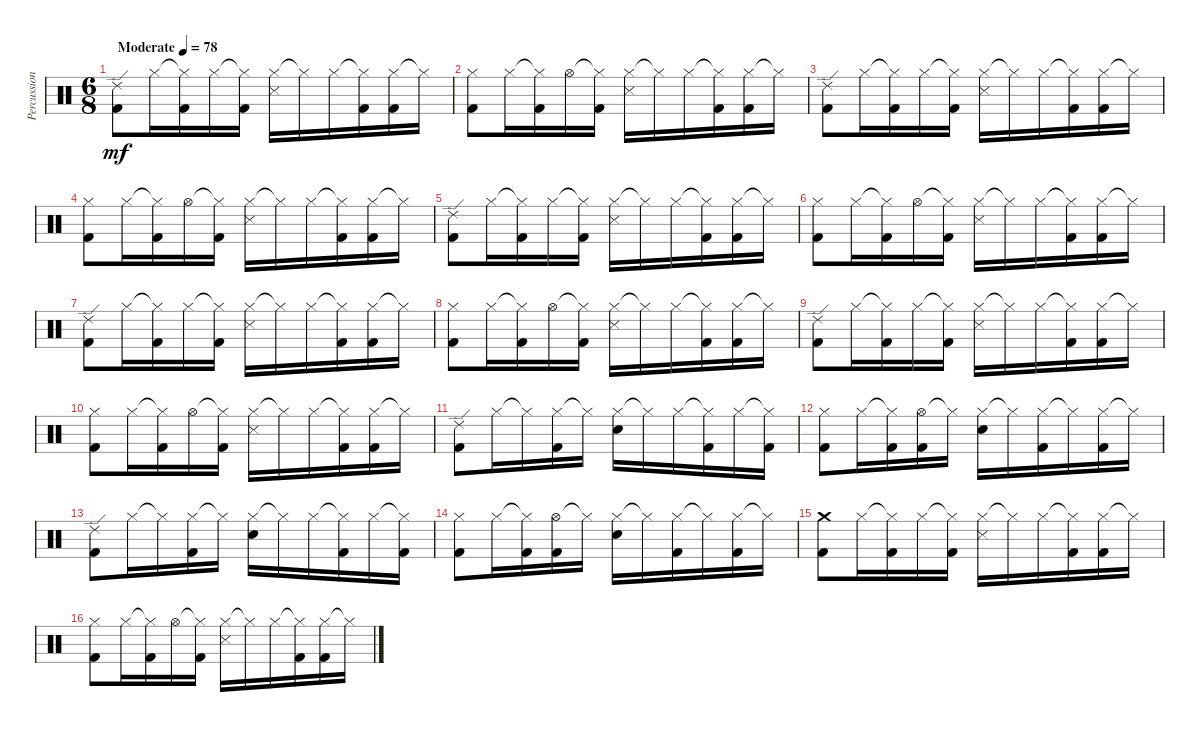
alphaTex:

\track ("Percussion" "Percussion") {instrument percussion}
\staff {score}
\articulation defaults
\ts (6 8)
\tempo (78 "Moderate")
\clef neutral
\ks c
("Ride (edge) 2" "Kick (hit) 2").8{dy mf} "Hi-Hat (closed)".16 ("Hi-Hat (closed)"{t} "Kick (hit) 2").16 "Hi-Hat (closed)".16 ("Hi-Hat (closed)"{t} "Kick (hit) 2").16 ("Hi-Hat (closed)" "Snare (side stick) 3").16 "Hi-Hat (closed)"{t}.16 "Hi-Hat (closed)".16 ("Hi-Hat (closed)"{t} "Kick (hit) 2").16 ("Hi-Hat (closed)" "Kick (hit) 2").16 "Hi-Hat (closed)"{t}.16 |
("Hi-Hat (closed)" "Kick (hit) 2").8 "Hi-Hat (closed)".16 ("Hi-Hat (closed)"{t} "Kick (hit) 2").16 "Hi-Hat (open)".16 ("Hi-Hat (closed)"{t} "Kick (hit) 2").16 ("Hi-Hat (closed)" "Snare (side stick) 3").16 "Hi-Hat (closed)"{t}.16 "Hi-Hat (closed)".16 ("Hi-Hat (closed)"{t} "Kick (hit) 2").16 ("Hi-Hat (closed)" "Kick (hit) 2").16 "Hi-Hat (closed)"{t}.16 |
("Ride (edge) 2" "Kick (hit) 2").8 "Hi-Hat (closed)".16 ("Hi-Hat (closed)"{t} "Kick (hit) 2").16 "Hi-Hat (closed)".16 ("Hi-Hat (closed)"{t} "Kick (hit) 2").16 ("Hi-Hat (closed)" "Snare (side stick) 3").16 "Hi-Hat (closed)"{t}.16 "Hi-Hat (closed)".16 ("Hi-Hat (closed)"{t} "Kick (hit) 2").16 ("Hi-Hat (closed)" "Kick (hit) 2").16 "Hi-Hat (closed)"{t}.16 |
("Hi-Hat (closed)" "Kick (hit) 2").8 "Hi-Hat (closed)".16 ("Hi-Hat (closed)"{t} "Kick (hit) 2").16 "Hi-Hat (open)".16 ("Hi-Hat (closed)"{t} "Kick (hit) 2").16 ("Hi-Hat (closed)" "Snare (side stick) 3").16 "Hi-Hat (closed)"{t}.16 "Hi-Hat (closed)".16 ("Hi-Hat (closed)"{t} "Kick (hit) 2").16 ("Hi-Hat (closed)" "Kick (hit) 2").16 "Hi-Hat (closed)"{t}.16 |
("Ride (edge) 2" "Kick (hit) 2").8 "Hi-Hat (closed)".16 ("Hi-Hat (closed)"{t} "Kick (hit) 2").16 "Hi-Hat (closed)".16 ("Hi-Hat (closed)"{t} "Kick (hit) 2").16 ("Hi-Hat (closed)" "Snare (side stick) 3").16 "Hi-Hat (closed)"{t}.16 "Hi-Hat (closed)".16 ("Hi-Hat (closed)"{t} "Kick (hit) 2").16 ("Hi-Hat (closed)" "Kick (hit) 2").16 "Hi-Hat (closed)"{t}.16 |
("Hi-Hat (closed)" "Kick (hit) 2").8 "Hi-Hat (closed)".16 ("Hi-Hat (closed)"{t} "Kick (hit) 2").16 "Hi-Hat (open)".16 ("Hi-Hat (closed)"{t} "Kick (hit) 2").16 ("Hi-Hat (closed)" "Snare (side stick) 3").16 "Hi-Hat (closed)"{t}.16 "Hi-Hat (closed)".16 ("Hi-Hat (closed)"{t} "Kick (hit) 2").16 ("Hi-Hat (closed)" "Kick (hit) 2").16 "Hi-Hat (closed)"{t}.16 |
("Ride (edge) 2" "Kick (hit) 2").8 "Hi-Hat (closed)".16 ("Hi-Hat (closed)"{t} "Kick (hit) 2").16 "Hi-Hat (closed)".16 ("Hi-Hat (closed)"{t} "Kick (hit) 2").16 ("Hi-Hat (closed)" "Snare (side stick) 3").16 "Hi-Hat (closed)"{t}.16 "Hi-Hat (closed)".16 ("Hi-Hat (closed)"{t} "Kick (hit) 2").16 ("Hi-Hat (closed)" "Kick (hit) 2").16 "Hi-Hat (closed)"{t}.16 |
("Hi-Hat (closed)" "Kick (hit) 2").8 "Hi-Hat (closed)".16 ("Hi-Hat (closed)"{t} "Kick (hit) 2").16 "Hi-Hat (open)".16 ("Hi-Hat (closed)"{t} "Kick (hit) 2").16 ("Hi-Hat (closed)" "Snare (side stick) 3").16 "Hi-Hat (closed)"{t}.16 "Hi-Hat (closed)".16 ("Hi-Hat (closed)"{t} "Kick (hit) 2").16 ("Hi-Hat (closed)" "Kick (hit) 2").16 "Hi-Hat (closed)"{t}.16 |
("Ride (edge) 2" "Kick (hit) 2").8 "Hi-Hat (closed)".16 ("Hi-Hat (closed)"{t} "Kick (hit) 2").16 "Hi-Hat (closed)".16 ("Hi-Hat (closed)"{t} "Kick (hit) 2").16 ("Hi-Hat (closed)" "Snare (side stick) 3").16 "Hi-Hat (closed)"{t}.16 "Hi-Hat (closed)".16 ("Hi-Hat (closed)"{t} "Kick (hit) 2").16 ("Hi-Hat (closed)" "Kick (hit) 2").16 "Hi-Hat (closed)"{t}.16 |
("Hi-Hat (closed)" "Kick (hit) 2").8 "Hi-Hat (closed)".16 ("Hi-Hat (closed)"{t} "Kick (hit) 2").16 "Hi-Hat (open)".16 ("Hi-Hat (closed)"{t} "Kick (hit) 2").16 ("Hi-Hat (closed)" "Snare (side stick) 3").16 "Hi-Hat (closed)"{t}.16 "Hi-Hat (closed)".16 ("Hi-Hat (closed)"{t} "Kick (hit) 2").16 ("Hi-Hat (closed)" "Kick (hit) 2").16 "Hi-Hat (closed)"{t}.16 |
("Ride (edge) 2" "Kick (hit) 2").8 "Hi-Hat (closed)".16 "Hi-Hat (closed)"{t}.16 ("Hi-Hat (closed)" "Kick (hit) 2").16 "Hi-Hat (closed)"{t}.16 ("Hi-Hat (closed)" "Electric Snare (hit)").16 "Hi-Hat (closed)"{t}.16 "Hi-Hat (closed)".16 ("Hi-Hat (closed)"{t} "Kick (hit) 2").16 "Hi-Hat (closed)".16 ("Hi-Hat (closed)"{t} "Kick (hit) 2").16 |
("Hi-Hat (closed)" "Kick (hit) 2").8 "Hi-Hat (closed)".16 ("Hi-Hat (closed)"{t} "Kick (hit) 2").16 ("Hi-Hat (open)" "Kick (hit) 2").16 "Hi-Hat (closed)"{t}.16 ("Hi-Hat (closed)" "Electric Snare (hit)").16 "Hi-Hat (closed)"{t}.16 ("Hi-Hat (closed)" "Kick (hit) 2").16 "Hi-Hat (closed)"{t}.16 ("Hi-Hat (closed)" "Kick (hit) 2").16 "Hi-Hat (closed)"{t}.16 |
("Ride (edge) 2" "Kick (hit) 2").8 "Hi-Hat (closed)".16 "Hi-Hat (closed)"{t}.16 ("Hi-Hat (closed)" "Kick (hit) 2").16 "Hi-Hat (closed)"{t}.16 ("Hi-Hat (closed)" "Electric Snare (hit)").16 "Hi-Hat (closed)"{t}.16 "Hi-Hat (closed)".16 ("Hi-Hat (closed)"{t} "Kick (hit) 2").16 "Hi-Hat (closed)".16 ("Hi-Hat (closed)"{t} "Kick (hit) 2").16 |
("Hi-Hat (closed)" "Kick (hit) 2").8 "Hi-Hat (closed)".16 ("Hi-Hat (closed)"{t} "Kick (hit) 2").16 ("Hi-Hat (open)" "Kick (hit) 2").16 "Hi-Hat (closed)"{t}.16 ("Hi-Hat (closed)" "Electric Snare (hit)").16 "Hi-Hat (closed)"{t}.16 ("Hi-Hat (closed)" "Kick (hit) 2").16 "Hi-Hat (closed)"{t}.16 ("Hi-Hat (closed)" "Kick (hit) 2").16 "Hi-Hat (closed)"{t}.16 |
("Crash medium (hit)" "Kick (hit) 2").8 "Hi-Hat (closed)".16 ("Hi-Hat (closed)"{t} "Kick (hit) 2").16 "Hi-Hat (closed)".16 ("Hi-Hat (closed)"{t} "Kick (hit) 2").16 ("Hi-Hat (closed)" "Snare (side stick) 3").16 "Hi-Hat (closed)"{t}.16 "Hi-Hat (closed)".16 ("Hi-Hat (closed)"{t} "Kick (hit) 2").16 ("Hi-Hat (closed)" "Kick (hit) 2").16 "Hi-Hat (closed)"{t}.16 |
("Hi-Hat (closed)" "Kick (hit) 2").8 "Hi-Hat (closed)".16 ("Hi-Hat (closed)"{t} "Kick (hit) 2").16 "Hi-Hat (open)".16 ("Hi-Hat (closed)"{t} "Kick (hit) 2").16 ("Hi-Hat (closed)" "Snare (side stick) 3").16 "Hi-Hat (closed)"{t}.16 "Hi-Hat (closed)".16 ("Hi-Hat (closed)"{t} "Kick (hit) 2").16 ("Hi-Hat (closed)" "Kick (hit) 2").16 "Hi-Hat (closed)"{t}.16
